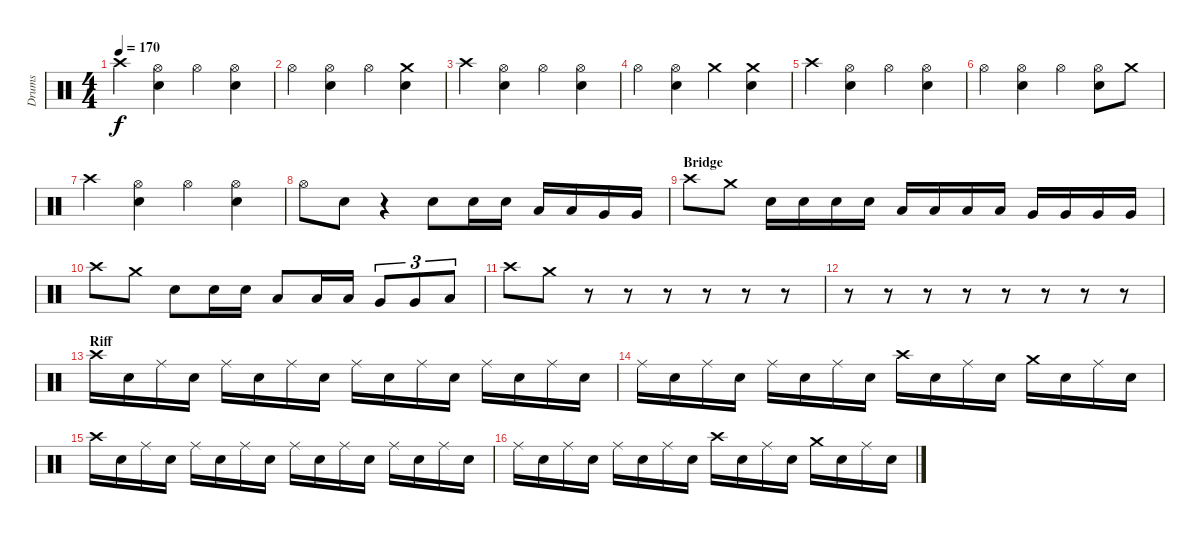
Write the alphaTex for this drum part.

\track ("Drums" "Drums") {instrument percussion}
\staff {score}
\articulation defaults
\ts (4 4)
\tempo 170
\clef neutral
\ks c "Crash high (hit)".4{dy f}
("Hi-Hat (open)" "Electric Snare (hit)").4 "Hi-Hat (open)".4 ("Hi-Hat (open)" "Electric Snare (hit)").4 |
"Hi-Hat (open)".4 ("Hi-Hat (open)" "Electric Snare (hit)").4 "Hi-Hat (open)".4 ("Crash medium (hit)" "Electric Snare (hit)").4 |
"Crash high (hit)".4 ("Hi-Hat (open)" "Electric Snare (hit)").4 "Hi-Hat (open)".4 ("Hi-Hat (open)" "Electric Snare (hit)").4 |
"Hi-Hat (open)".4 ("Hi-Hat (open)" "Electric Snare (hit)").4 "Crash medium (hit)".4 ("Crash medium (hit)" "Electric Snare (hit)").4 |
"Crash high (hit)".4 ("Hi-Hat (open)" "Electric Snare (hit)").4 "Hi-Hat (open)".4 ("Hi-Hat (open)" "Electric Snare (hit)").4 |
"Hi-Hat (open)".4 ("Hi-Hat (open)" "Electric Snare (hit)").4 "Hi-Hat (open)".4 ("Hi-Hat (open)" "Electric Snare (hit)").8 "Crash medium (hit)".8 |
"Crash high (hit)".4 ("Hi-Hat (open)" "Electric Snare (hit)").4 "Hi-Hat (open)".4 ("Hi-Hat (open)" "Electric Snare (hit)").4 |
"Hi-Hat (open)".8 "Electric Snare (hit)".8 r.4 "Electric Snare (hit)".8 "Electric Snare (hit)".16 "Electric Snare (hit)".16 "Low Tom (hit)".16 "Low Tom (hit)".16 "Very Low Tom (hit)".16 "Very Low Tom (hit)".16 |
\section ("" "Bridge")
"Crash high (hit)".8 "Crash medium (hit)".8 "Electric Snare (hit)".16 "Electric Snare (hit)".16 "Electric Snare (hit)".16 "Electric Snare (hit)".16 "Low Tom (hit)".16 "Low Tom (hit)".16 "Low Tom (hit)".16 "Low Tom (hit)".16 "Very Low Tom (hit)".16 "Very Low Tom (hit)".16 "Very Low Tom (hit)".16 "Very Low Tom (hit)".16 |
"Crash high (hit)".8 "Crash medium (hit)".8 "Electric Snare (hit)".8 "Electric Snare (hit)".16 "Electric Snare (hit)".16 "Low Tom (hit)".8 "Low Tom (hit)".16 "Low Tom (hit)".16 "Very Low Tom (hit)".8{tu (3 2)} "Very Low Tom (hit)".8{tu (3 2)} "Low Floor Tom (hit)".8{tu (3 2)} |
"Crash high (hit)".8 "Crash medium (hit)".8 r.8 r.8 r.8 r.8 r.8 r.8 |
r.8 r.8 r.8 r.8 r.8 r.8 r.8 r.8 |
\section ("" "Riff")
"Crash high (hit)".16 "Electric Snare (hit)".16 "Ride (middle)".16 "Electric Snare (hit)".16 "Ride (middle)".16 "Electric Snare (hit)".16 "Ride (middle)".16 "Electric Snare (hit)".16 "Ride (middle)".16 "Electric Snare (hit)".16 "Ride (middle)".16 "Electric Snare (hit)".16 "Ride (middle)".16 "Electric Snare (hit)".16 "Ride (middle)".16 "Electric Snare (hit)".16 |
"Ride (middle)".16 "Electric Snare (hit)".16 "Ride (middle)".16 "Electric Snare (hit)".16 "Ride (middle)".16 "Electric Snare (hit)".16 "Ride (middle)".16 "Electric Snare (hit)".16 "Crash high (hit)".16 "Electric Snare (hit)".16 "Ride (middle)".16 "Electric Snare (hit)".16 "Crash medium (hit)".16 "Electric Snare (hit)".16 "Ride (middle)".16 "Electric Snare (hit)".16 |
"Crash high (hit)".16 "Electric Snare (hit)".16 "Ride (middle)".16 "Electric Snare (hit)".16 "Ride (middle)".16 "Electric Snare (hit)".16 "Ride (middle)".16 "Electric Snare (hit)".16 "Ride (middle)".16 "Electric Snare (hit)".16 "Ride (middle)".16 "Electric Snare (hit)".16 "Ride (middle)".16 "Electric Snare (hit)".16 "Ride (middle)".16 "Electric Snare (hit)".16 |
"Ride (middle)".16 "Electric Snare (hit)".16 "Ride (middle)".16 "Electric Snare (hit)".16 "Ride (middle)".16 "Electric Snare (hit)".16 "Ride (middle)".16 "Electric Snare (hit)".16 "Crash high (hit)".16 "Electric Snare (hit)".16 "Ride (middle)".16 "Electric Snare (hit)".16 "Crash medium (hit)".16 "Electric Snare (hit)".16 "Ride (middle)".16 "Electric Snare (hit)".16
